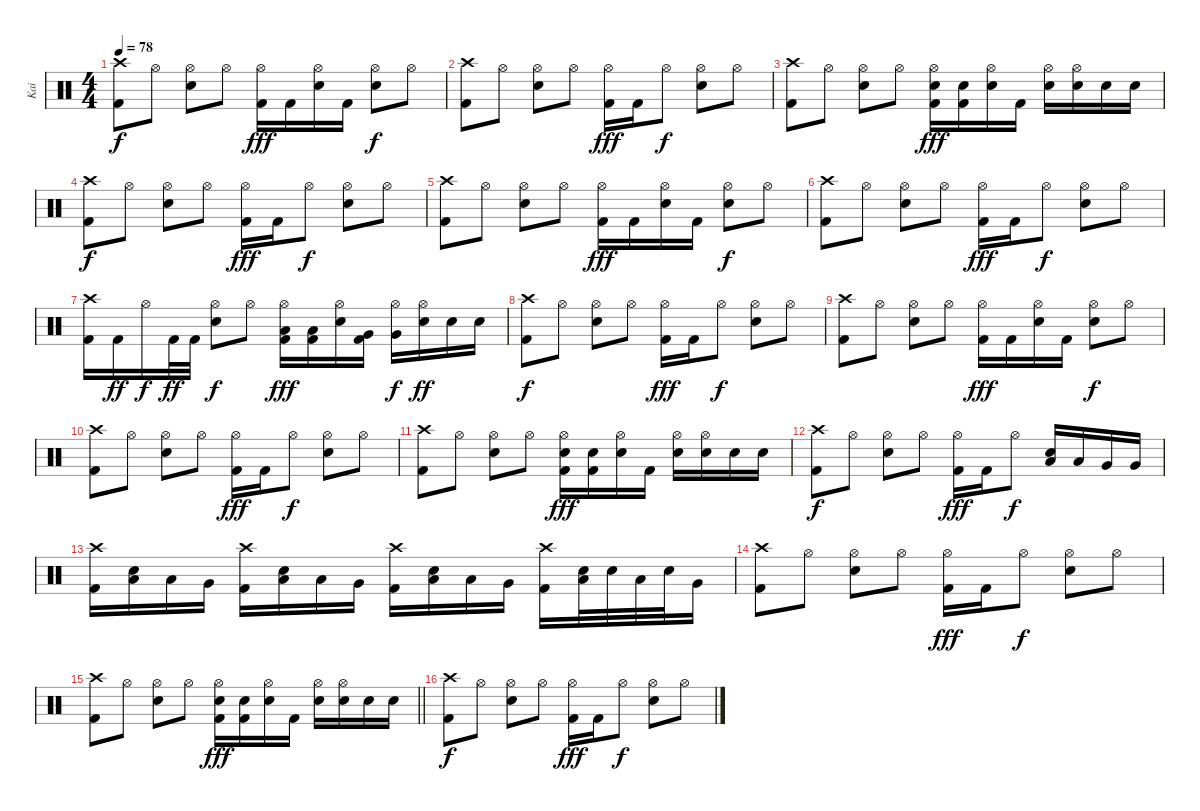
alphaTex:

\track ("Kai" "Kai") {instrument percussion}
\staff {score}
\articulation defaults
\ts (4 4)
\tempo 78
\clef neutral
\ks c
("Crash high (hit)" "Kick (hit) 2").8{dy f} "Hi-Hat (open)".8 ("Hi-Hat (open)" "Electric Snare (hit)").8 "Hi-Hat (open)".8 ("Hi-Hat (open)" "Kick (hit) 2").16{dy fff} "Kick (hit) 2".16 ("Hi-Hat (open)" "Electric Snare (hit)").16 "Kick (hit) 2".16 ("Hi-Hat (open)" "Electric Snare (hit)").8{dy f} "Hi-Hat (open)".8 |
("Crash high (hit)" "Kick (hit) 2").8 "Hi-Hat (open)".8 ("Hi-Hat (open)" "Electric Snare (hit)").8 "Hi-Hat (open)".8 ("Hi-Hat (open)" "Kick (hit) 2").16{dy fff} "Kick (hit) 2".16 "Hi-Hat (open)".8{dy f} ("Hi-Hat (open)" "Electric Snare (hit)").8 "Hi-Hat (open)".8 |
("Crash high (hit)" "Kick (hit) 2").8 "Hi-Hat (open)".8 ("Hi-Hat (open)" "Electric Snare (hit)").8 "Hi-Hat (open)".8 ("Hi-Hat (open)" "Electric Snare (hit)" "Kick (hit) 2").16{dy fff} ("Electric Snare (hit)" "Kick (hit) 2").16 ("Hi-Hat (open)" "Electric Snare (hit)").16 "Kick (hit) 2".16 ("Hi-Hat (open)" "Electric Snare (hit)").16 ("Hi-Hat (open)" "Electric Snare (hit)").16 "Electric Snare (hit)".16 "Electric Snare (hit)".16 |
("Crash high (hit)" "Kick (hit) 2").8{dy f} "Hi-Hat (open)".8 ("Hi-Hat (open)" "Electric Snare (hit)").8 "Hi-Hat (open)".8 ("Hi-Hat (open)" "Kick (hit) 2").16{dy fff} "Kick (hit) 2".16 "Hi-Hat (open)".8{dy f} ("Hi-Hat (open)" "Electric Snare (hit)").8 "Hi-Hat (open)".8 |
("Crash high (hit)" "Kick (hit) 2").8 "Hi-Hat (open)".8 ("Hi-Hat (open)" "Electric Snare (hit)").8 "Hi-Hat (open)".8 ("Hi-Hat (open)" "Kick (hit) 2").16{dy fff} "Kick (hit) 2".16 ("Hi-Hat (open)" "Electric Snare (hit)").16 "Kick (hit) 2".16 ("Hi-Hat (open)" "Electric Snare (hit)").8{dy f} "Hi-Hat (open)".8 |
("Crash high (hit)" "Kick (hit) 2").8 "Hi-Hat (open)".8 ("Hi-Hat (open)" "Electric Snare (hit)").8 "Hi-Hat (open)".8 ("Hi-Hat (open)" "Kick (hit) 2").16{dy fff} "Kick (hit) 2".16 "Hi-Hat (open)".8{dy f} ("Hi-Hat (open)" "Electric Snare (hit)").8 "Hi-Hat (open)".8 |
("Crash high (hit)" "Kick (hit) 2").16 "Kick (hit) 2".16{dy ff} "Hi-Hat (open)".16{dy f} "Kick (hit) 2".32{dy ff} "Kick (hit) 2".32 ("Hi-Hat (open)" "Electric Snare (hit)").8{dy f} "Hi-Hat (open)".8 ("Hi-Hat (open)" "Low Tom (hit)" "Kick (hit) 2").16{dy fff} ("Low Tom (hit)" "Kick (hit) 2").16 ("Hi-Hat (open)" "Electric Snare (hit)").16 ("Very Low Tom (hit)" "Kick (hit) 2").16 ("Hi-Hat (open)" "Very Low Tom (hit)").16{dy f} ("Hi-Hat (open)" "Electric Snare (hit)").16{dy ff} "Electric Snare (hit)".16 "Electric Snare (hit)".16 |
("Crash high (hit)" "Kick (hit) 2").8{dy f} "Hi-Hat (open)".8 ("Hi-Hat (open)" "Electric Snare (hit)").8 "Hi-Hat (open)".8 ("Hi-Hat (open)" "Kick (hit) 2").16{dy fff} "Kick (hit) 2".16 "Hi-Hat (open)".8{dy f} ("Hi-Hat (open)" "Electric Snare (hit)").8 "Hi-Hat (open)".8 |
("Crash high (hit)" "Kick (hit) 2").8 "Hi-Hat (open)".8 ("Hi-Hat (open)" "Electric Snare (hit)").8 "Hi-Hat (open)".8 ("Hi-Hat (open)" "Kick (hit) 2").16{dy fff} "Kick (hit) 2".16 ("Hi-Hat (open)" "Electric Snare (hit)").16 "Kick (hit) 2".16 ("Hi-Hat (open)" "Electric Snare (hit)").8{dy f} "Hi-Hat (open)".8 |
("Crash high (hit)" "Kick (hit) 2").8 "Hi-Hat (open)".8 ("Hi-Hat (open)" "Electric Snare (hit)").8 "Hi-Hat (open)".8 ("Hi-Hat (open)" "Kick (hit) 2").16{dy fff} "Kick (hit) 2".16 "Hi-Hat (open)".8{dy f} ("Hi-Hat (open)" "Electric Snare (hit)").8 "Hi-Hat (open)".8 |
("Crash high (hit)" "Kick (hit) 2").8 "Hi-Hat (open)".8 ("Hi-Hat (open)" "Electric Snare (hit)").8 "Hi-Hat (open)".8 ("Hi-Hat (open)" "Electric Snare (hit)" "Kick (hit) 2").16{dy fff} ("Electric Snare (hit)" "Kick (hit) 2").16 ("Hi-Hat (open)" "Electric Snare (hit)").16 "Kick (hit) 2".16 ("Hi-Hat (open)" "Electric Snare (hit)").16 ("Hi-Hat (open)" "Electric Snare (hit)").16 "Electric Snare (hit)".16 "Electric Snare (hit)".16 |
("Crash high (hit)" "Kick (hit) 2").8{dy f} "Hi-Hat (open)".8 ("Hi-Hat (open)" "Electric Snare (hit)").8 "Hi-Hat (open)".8 ("Hi-Hat (open)" "Kick (hit) 2").16{dy fff} "Kick (hit) 2".16 "Hi-Hat (open)".8{dy f} ("Low Tom (hit)" "Electric Snare (hit)").16 "Low Tom (hit)".16 "Very Low Tom (hit)".16 "Very Low Tom (hit)".16 |
("Crash high (hit)" "Kick (hit) 2").16 ("Low Tom (hit)" "Electric Snare (hit)").16 "Low Tom (hit)".16 "Very Low Tom (hit)".16 ("Crash high (hit)" "Kick (hit) 2").16 ("Low Tom (hit)" "Electric Snare (hit)").16 "Low Tom (hit)".16 "Very Low Tom (hit)".16 ("Crash high (hit)" "Kick (hit) 2").16 ("Low Tom (hit)" "Electric Snare (hit)").16 "Low Tom (hit)".16 "Very Low Tom (hit)".16 ("Crash high (hit)" "Kick (hit) 2").16 ("Low Tom (hit)" "Electric Snare (hit)").32 "Electric Snare (hit)".32 "Low Tom (hit)".32 "Electric Snare (hit)".32 "Very Low Tom (hit)".16 |
("Crash high (hit)" "Kick (hit) 2").8 "Hi-Hat (open)".8 ("Hi-Hat (open)" "Electric Snare (hit)").8 "Hi-Hat (open)".8 ("Hi-Hat (open)" "Kick (hit) 2").16{dy fff} "Kick (hit) 2".16 "Hi-Hat (open)".8{dy f} ("Hi-Hat (open)" "Electric Snare (hit)").8 "Hi-Hat (open)".8 |
\barLineRight lightlight
("Crash high (hit)" "Kick (hit) 2").8 "Hi-Hat (open)".8 ("Hi-Hat (open)" "Electric Snare (hit)").8 "Hi-Hat (open)".8 ("Hi-Hat (open)" "Electric Snare (hit)" "Kick (hit) 2").16{dy fff} ("Electric Snare (hit)" "Kick (hit) 2").16 ("Hi-Hat (open)" "Electric Snare (hit)").16 "Kick (hit) 2".16 ("Hi-Hat (open)" "Electric Snare (hit)").16 ("Hi-Hat (open)" "Electric Snare (hit)").16 "Electric Snare (hit)".16 "Electric Snare (hit)".16 |
("Crash high (hit)" "Kick (hit) 2").8{dy f} "Hi-Hat (open)".8 ("Hi-Hat (open)" "Electric Snare (hit)").8 "Hi-Hat (open)".8 ("Hi-Hat (open)" "Kick (hit) 2").16{dy fff} "Kick (hit) 2".16 "Hi-Hat (open)".8{dy f} ("Hi-Hat (open)" "Electric Snare (hit)").8 "Hi-Hat (open)".8
